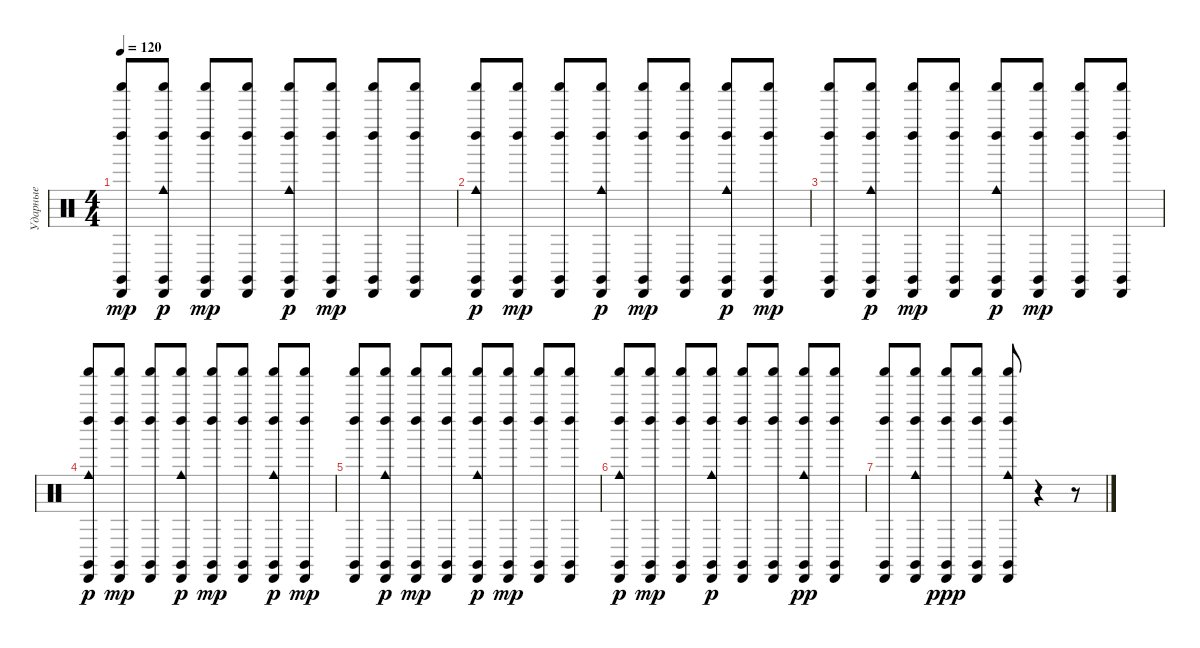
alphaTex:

\track ("Ударные" "Ударные") {instrument percussion}
\staff {score}
\articulation defaults
\ts (4 4)
\tempo 120
\clef neutral
\ks c
("Claves (hit)" "Shaker (hit)" "Cabasa (hit)" "Left Maraca (hit)").8{dy mp} ("Claves (hit)" "Shaker (hit)" "Cabasa (hit)" "Left Maraca (hit)" "Cowbell medium (hit)").8{dy p} ("Claves (hit)" "Shaker (hit)" "Cabasa (hit)" "Left Maraca (hit)").8{dy mp} ("Claves (hit)" "Shaker (hit)" "Cabasa (hit)" "Left Maraca (hit)").8 ("Claves (hit)" "Shaker (hit)" "Cabasa (hit)" "Left Maraca (hit)" "Cowbell medium (hit)").8{dy p} ("Claves (hit)" "Shaker (hit)" "Cabasa (hit)" "Left Maraca (hit)").8{dy mp} ("Claves (hit)" "Shaker (hit)" "Cabasa (hit)" "Left Maraca (hit)").8 ("Claves (hit)" "Shaker (hit)" "Cabasa (hit)" "Left Maraca (hit)").8 |
("Claves (hit)" "Shaker (hit)" "Cabasa (hit)" "Left Maraca (hit)" "Cowbell medium (hit)").8{dy p} ("Claves (hit)" "Shaker (hit)" "Cabasa (hit)" "Left Maraca (hit)").8{dy mp} ("Claves (hit)" "Shaker (hit)" "Cabasa (hit)" "Left Maraca (hit)").8 ("Claves (hit)" "Shaker (hit)" "Cabasa (hit)" "Left Maraca (hit)" "Cowbell medium (hit)").8{dy p} ("Claves (hit)" "Shaker (hit)" "Cabasa (hit)" "Left Maraca (hit)").8{dy mp} ("Claves (hit)" "Shaker (hit)" "Cabasa (hit)" "Left Maraca (hit)").8 ("Claves (hit)" "Shaker (hit)" "Cabasa (hit)" "Left Maraca (hit)" "Cowbell medium (hit)").8{dy p} ("Claves (hit)" "Shaker (hit)" "Cabasa (hit)" "Left Maraca (hit)").8{dy mp} |
("Claves (hit)" "Shaker (hit)" "Cabasa (hit)" "Left Maraca (hit)").8 ("Claves (hit)" "Shaker (hit)" "Cabasa (hit)" "Left Maraca (hit)" "Cowbell medium (hit)").8{dy p} ("Claves (hit)" "Shaker (hit)" "Cabasa (hit)" "Left Maraca (hit)").8{dy mp} ("Claves (hit)" "Shaker (hit)" "Cabasa (hit)" "Left Maraca (hit)").8 ("Claves (hit)" "Shaker (hit)" "Cabasa (hit)" "Left Maraca (hit)" "Cowbell medium (hit)").8{dy p} ("Claves (hit)" "Shaker (hit)" "Cabasa (hit)" "Left Maraca (hit)").8{dy mp} ("Claves (hit)" "Shaker (hit)" "Cabasa (hit)" "Left Maraca (hit)").8 ("Claves (hit)" "Shaker (hit)" "Cabasa (hit)" "Left Maraca (hit)").8 |
("Claves (hit)" "Shaker (hit)" "Cabasa (hit)" "Left Maraca (hit)" "Cowbell medium (hit)").8{dy p} ("Claves (hit)" "Shaker (hit)" "Cabasa (hit)" "Left Maraca (hit)").8{dy mp} ("Claves (hit)" "Shaker (hit)" "Cabasa (hit)" "Left Maraca (hit)").8 ("Claves (hit)" "Shaker (hit)" "Cabasa (hit)" "Left Maraca (hit)" "Cowbell medium (hit)").8{dy p} ("Claves (hit)" "Shaker (hit)" "Cabasa (hit)" "Left Maraca (hit)").8{dy mp} ("Claves (hit)" "Shaker (hit)" "Cabasa (hit)" "Left Maraca (hit)").8 ("Claves (hit)" "Shaker (hit)" "Cabasa (hit)" "Left Maraca (hit)" "Cowbell medium (hit)").8{dy p} ("Claves (hit)" "Shaker (hit)" "Cabasa (hit)" "Left Maraca (hit)").8{dy mp} |
("Claves (hit)" "Shaker (hit)" "Cabasa (hit)" "Left Maraca (hit)").8 ("Claves (hit)" "Shaker (hit)" "Cabasa (hit)" "Left Maraca (hit)" "Cowbell medium (hit)").8{dy p} ("Claves (hit)" "Shaker (hit)" "Cabasa (hit)" "Left Maraca (hit)").8{dy mp} ("Claves (hit)" "Shaker (hit)" "Cabasa (hit)" "Left Maraca (hit)").8 ("Claves (hit)" "Shaker (hit)" "Cabasa (hit)" "Left Maraca (hit)" "Cowbell medium (hit)").8{dy p} ("Claves (hit)" "Shaker (hit)" "Cabasa (hit)" "Left Maraca (hit)").8{dy mp} ("Claves (hit)" "Shaker (hit)" "Cabasa (hit)" "Left Maraca (hit)").8 ("Claves (hit)" "Shaker (hit)" "Cabasa (hit)" "Left Maraca (hit)").8 |
("Claves (hit)" "Shaker (hit)" "Cabasa (hit)" "Left Maraca (hit)" "Cowbell medium (hit)").8{dy p} ("Claves (hit)" "Shaker (hit)" "Cabasa (hit)" "Left Maraca (hit)").8{dy mp} ("Claves (hit)" "Shaker (hit)" "Cabasa (hit)" "Left Maraca (hit)").8 ("Claves (hit)" "Shaker (hit)" "Cabasa (hit)" "Left Maraca (hit)" "Cowbell medium (hit)").8{dy p} ("Claves (hit)" "Shaker (hit)" "Cabasa (hit)" "Left Maraca (hit)").8 ("Claves (hit)" "Shaker (hit)" "Cabasa (hit)" "Left Maraca (hit)").8 ("Claves (hit)" "Shaker (hit)" "Cabasa (hit)" "Left Maraca (hit)" "Cowbell medium (hit)").8{dy pp} ("Claves (hit)" "Shaker (hit)" "Cabasa (hit)" "Left Maraca (hit)").8 |
("Claves (hit)" "Shaker (hit)" "Cabasa (hit)" "Left Maraca (hit)").8 ("Claves (hit)" "Shaker (hit)" "Cabasa (hit)" "Left Maraca (hit)" "Cowbell medium (hit)").8 ("Claves (hit)" "Shaker (hit)" "Cabasa (hit)" "Left Maraca (hit)").8{dy ppp} ("Claves (hit)" "Shaker (hit)" "Cabasa (hit)" "Left Maraca (hit)").8 ("Claves (hit)" "Shaker (hit)" "Cabasa (hit)" "Left Maraca (hit)" "Cowbell medium (hit)").8 r.4 r.8
